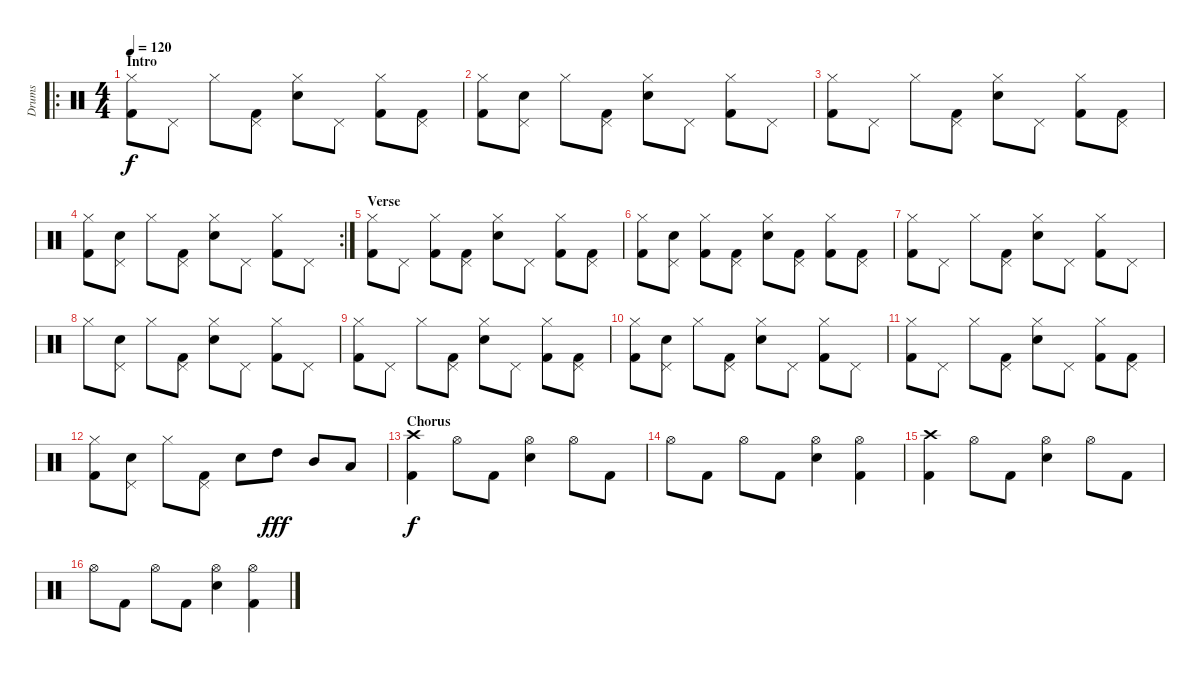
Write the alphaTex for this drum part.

\track ("Drums" "Drums") {instrument percussion}
\staff {score}
\articulation defaults
\ro
\ts (4 4)
\section ("" "Intro")
\tempo 120
\clef neutral
\ks c
("Hi-Hat (closed)" "Kick (hit) 2").8{dy f} "Pedal Hi-Hat (hit)".8 "Hi-Hat (closed)".8 ("Pedal Hi-Hat (hit)" "Kick (hit) 2").8 ("Hi-Hat (closed)" "Electric Snare (hit)").8 "Pedal Hi-Hat (hit)".8 ("Hi-Hat (closed)" "Kick (hit) 2").8 ("Pedal Hi-Hat (hit)" "Kick (hit) 2").8 |
("Hi-Hat (closed)" "Kick (hit) 2").8 ("Pedal Hi-Hat (hit)" "Electric Snare (hit)").8 "Hi-Hat (closed)".8 ("Pedal Hi-Hat (hit)" "Kick (hit) 2").8 ("Hi-Hat (closed)" "Electric Snare (hit)").8 "Pedal Hi-Hat (hit)".8 ("Hi-Hat (closed)" "Kick (hit) 2").8 "Pedal Hi-Hat (hit)".8 |
("Hi-Hat (closed)" "Kick (hit) 2").8 "Pedal Hi-Hat (hit)".8 "Hi-Hat (closed)".8 ("Pedal Hi-Hat (hit)" "Kick (hit) 2").8 ("Hi-Hat (closed)" "Electric Snare (hit)").8 "Pedal Hi-Hat (hit)".8 ("Hi-Hat (closed)" "Kick (hit) 2").8 ("Pedal Hi-Hat (hit)" "Kick (hit) 2").8 |
\rc 2
("Hi-Hat (closed)" "Kick (hit) 2").8 ("Pedal Hi-Hat (hit)" "Electric Snare (hit)").8 "Hi-Hat (closed)".8 ("Pedal Hi-Hat (hit)" "Kick (hit) 2").8 ("Hi-Hat (closed)" "Electric Snare (hit)").8 "Pedal Hi-Hat (hit)".8 ("Hi-Hat (closed)" "Kick (hit) 2").8 "Pedal Hi-Hat (hit)".8 |
\section ("" "Verse")
("Hi-Hat (closed)" "Kick (hit) 2").8 "Pedal Hi-Hat (hit)".8 ("Hi-Hat (closed)" "Kick (hit) 2").8 ("Pedal Hi-Hat (hit)" "Kick (hit) 2").8 ("Hi-Hat (closed)" "Electric Snare (hit)").8 "Pedal Hi-Hat (hit)".8 ("Hi-Hat (closed)" "Kick (hit) 2").8 ("Pedal Hi-Hat (hit)" "Kick (hit) 2").8 |
("Hi-Hat (closed)" "Kick (hit) 2").8 ("Pedal Hi-Hat (hit)" "Electric Snare (hit)").8 ("Hi-Hat (closed)" "Kick (hit) 2").8 ("Pedal Hi-Hat (hit)" "Kick (hit) 2").8 ("Hi-Hat (closed)" "Electric Snare (hit)").8 ("Pedal Hi-Hat (hit)" "Kick (hit) 2").8 ("Hi-Hat (closed)" "Kick (hit) 2").8 ("Pedal Hi-Hat (hit)" "Kick (hit) 2").8 |
("Hi-Hat (closed)" "Kick (hit) 2").8 "Pedal Hi-Hat (hit)".8 "Hi-Hat (closed)".8 ("Pedal Hi-Hat (hit)" "Kick (hit) 2").8 ("Hi-Hat (closed)" "Electric Snare (hit)").8 "Pedal Hi-Hat (hit)".8 ("Hi-Hat (closed)" "Kick (hit) 2").8 "Pedal Hi-Hat (hit)".8 |
"Hi-Hat (closed)".8 ("Pedal Hi-Hat (hit)" "Electric Snare (hit)").8 "Hi-Hat (closed)".8 ("Pedal Hi-Hat (hit)" "Kick (hit) 2").8 ("Hi-Hat (closed)" "Electric Snare (hit)").8 "Pedal Hi-Hat (hit)".8 ("Hi-Hat (closed)" "Kick (hit) 2").8 "Pedal Hi-Hat (hit)".8 |
("Hi-Hat (closed)" "Kick (hit) 2").8 "Pedal Hi-Hat (hit)".8 "Hi-Hat (closed)".8 ("Pedal Hi-Hat (hit)" "Kick (hit) 2").8 ("Hi-Hat (closed)" "Electric Snare (hit)").8 "Pedal Hi-Hat (hit)".8 ("Hi-Hat (closed)" "Kick (hit) 2").8 ("Pedal Hi-Hat (hit)" "Kick (hit) 2").8 |
("Hi-Hat (closed)" "Kick (hit) 2").8 ("Pedal Hi-Hat (hit)" "Electric Snare (hit)").8 "Hi-Hat (closed)".8 ("Pedal Hi-Hat (hit)" "Kick (hit) 2").8 ("Hi-Hat (closed)" "Electric Snare (hit)").8 "Pedal Hi-Hat (hit)".8 ("Hi-Hat (closed)" "Kick (hit) 2").8 "Pedal Hi-Hat (hit)".8 |
("Hi-Hat (closed)" "Kick (hit) 2").8 "Pedal Hi-Hat (hit)".8 "Hi-Hat (closed)".8 ("Pedal Hi-Hat (hit)" "Kick (hit) 2").8 ("Hi-Hat (closed)" "Electric Snare (hit)").8 "Pedal Hi-Hat (hit)".8 ("Hi-Hat (closed)" "Kick (hit) 2").8 ("Pedal Hi-Hat (hit)" "Kick (hit) 2").8 |
("Hi-Hat (closed)" "Kick (hit) 2").8 ("Pedal Hi-Hat (hit)" "Electric Snare (hit)").8 "Hi-Hat (closed)".8 ("Pedal Hi-Hat (hit)" "Kick (hit) 2").8 "Electric Snare (hit)".8 "High Tom (hit)".8{dy fff} "Mid Tom (hit)".8 "Low Tom (hit)".8 |
\section ("" "Chorus")
("Crash high (hit)" "Kick (hit) 2").4{dy f} "Hi-Hat (open)".8 "Kick (hit) 2".8 ("Hi-Hat (open)" "Electric Snare (hit)").4 "Hi-Hat (open)".8 "Kick (hit) 2".8 |
"Hi-Hat (open)".8 "Kick (hit) 2".8 "Hi-Hat (open)".8 "Kick (hit) 2".8 ("Hi-Hat (open)" "Electric Snare (hit)").4 ("Hi-Hat (open)" "Kick (hit) 2").4 |
("Crash high (hit)" "Kick (hit) 2").4 "Hi-Hat (open)".8 "Kick (hit) 2".8 ("Hi-Hat (open)" "Electric Snare (hit)").4 "Hi-Hat (open)".8 "Kick (hit) 2".8 |
"Hi-Hat (open)".8 "Kick (hit) 2".8 "Hi-Hat (open)".8 "Kick (hit) 2".8 ("Hi-Hat (open)" "Electric Snare (hit)").4 ("Hi-Hat (open)" "Kick (hit) 2").4
